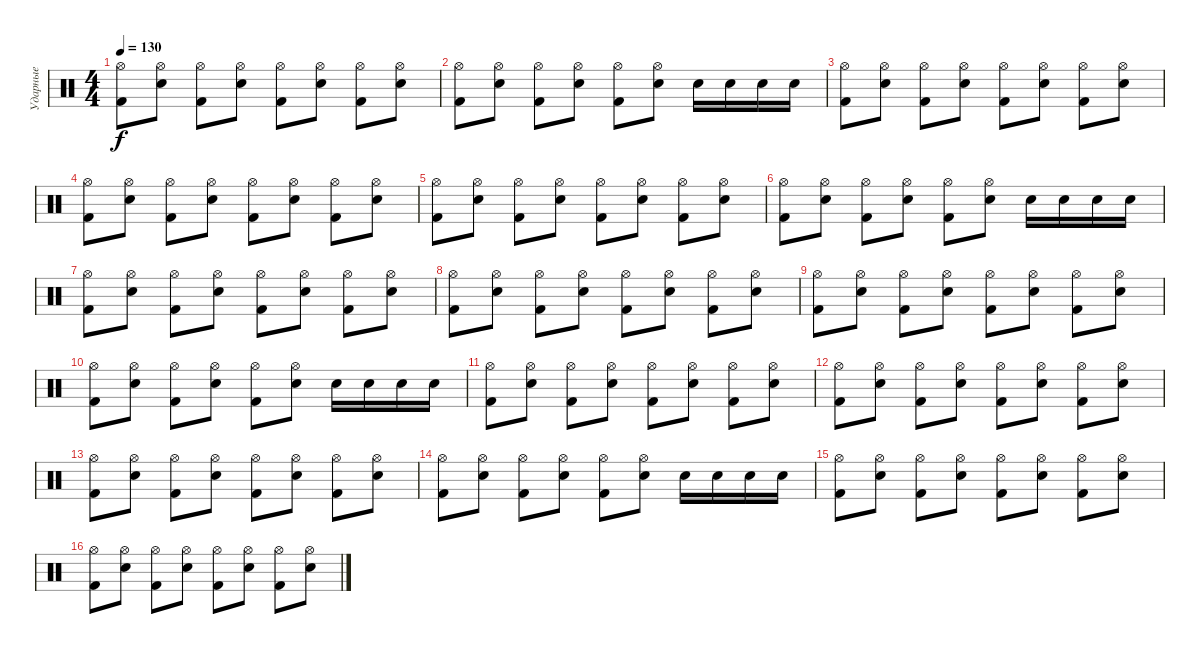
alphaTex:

\track ("Ударные" "Ударные") {instrument percussion}
\staff {score}
\articulation defaults
\ts (4 4)
\tempo 130
\clef neutral
\ks c
("Hi-Hat (open)" "Kick (hit) 2").8{dy f} ("Hi-Hat (open)" "Electric Snare (hit)").8 ("Hi-Hat (open)" "Kick (hit) 2").8 ("Hi-Hat (open)" "Electric Snare (hit)").8 ("Hi-Hat (open)" "Kick (hit) 2").8 ("Hi-Hat (open)" "Electric Snare (hit)").8 ("Hi-Hat (open)" "Kick (hit) 2").8 ("Hi-Hat (open)" "Electric Snare (hit)").8 |
("Hi-Hat (open)" "Kick (hit) 2").8 ("Hi-Hat (open)" "Electric Snare (hit)").8 ("Hi-Hat (open)" "Kick (hit) 2").8 ("Hi-Hat (open)" "Electric Snare (hit)").8 ("Hi-Hat (open)" "Kick (hit) 2").8 ("Hi-Hat (open)" "Electric Snare (hit)").8 "Electric Snare (hit)".16 "Electric Snare (hit)".16 "Electric Snare (hit)".16 "Electric Snare (hit)".16 |
("Hi-Hat (open)" "Kick (hit) 2").8 ("Hi-Hat (open)" "Electric Snare (hit)").8 ("Hi-Hat (open)" "Kick (hit) 2").8 ("Hi-Hat (open)" "Electric Snare (hit)").8 ("Hi-Hat (open)" "Kick (hit) 2").8 ("Hi-Hat (open)" "Electric Snare (hit)").8 ("Hi-Hat (open)" "Kick (hit) 2").8 ("Hi-Hat (open)" "Electric Snare (hit)").8 |
("Hi-Hat (open)" "Kick (hit) 2").8 ("Hi-Hat (open)" "Electric Snare (hit)").8 ("Hi-Hat (open)" "Kick (hit) 2").8 ("Hi-Hat (open)" "Electric Snare (hit)").8 ("Hi-Hat (open)" "Kick (hit) 2").8 ("Hi-Hat (open)" "Electric Snare (hit)").8 ("Hi-Hat (open)" "Kick (hit) 2").8 ("Hi-Hat (open)" "Electric Snare (hit)").8 |
("Hi-Hat (open)" "Kick (hit) 2").8 ("Hi-Hat (open)" "Electric Snare (hit)").8 ("Hi-Hat (open)" "Kick (hit) 2").8 ("Hi-Hat (open)" "Electric Snare (hit)").8 ("Hi-Hat (open)" "Kick (hit) 2").8 ("Hi-Hat (open)" "Electric Snare (hit)").8 ("Hi-Hat (open)" "Kick (hit) 2").8 ("Hi-Hat (open)" "Electric Snare (hit)").8 |
("Hi-Hat (open)" "Kick (hit) 2").8 ("Hi-Hat (open)" "Electric Snare (hit)").8 ("Hi-Hat (open)" "Kick (hit) 2").8 ("Hi-Hat (open)" "Electric Snare (hit)").8 ("Hi-Hat (open)" "Kick (hit) 2").8 ("Hi-Hat (open)" "Electric Snare (hit)").8 "Electric Snare (hit)".16 "Electric Snare (hit)".16 "Electric Snare (hit)".16 "Electric Snare (hit)".16 |
("Hi-Hat (open)" "Kick (hit) 2").8 ("Hi-Hat (open)" "Electric Snare (hit)").8 ("Hi-Hat (open)" "Kick (hit) 2").8 ("Hi-Hat (open)" "Electric Snare (hit)").8 ("Hi-Hat (open)" "Kick (hit) 2").8 ("Hi-Hat (open)" "Electric Snare (hit)").8 ("Hi-Hat (open)" "Kick (hit) 2").8 ("Hi-Hat (open)" "Electric Snare (hit)").8 |
("Hi-Hat (open)" "Kick (hit) 2").8 ("Hi-Hat (open)" "Electric Snare (hit)").8 ("Hi-Hat (open)" "Kick (hit) 2").8 ("Hi-Hat (open)" "Electric Snare (hit)").8 ("Hi-Hat (open)" "Kick (hit) 2").8 ("Hi-Hat (open)" "Electric Snare (hit)").8 ("Hi-Hat (open)" "Kick (hit) 2").8 ("Hi-Hat (open)" "Electric Snare (hit)").8 |
("Hi-Hat (open)" "Kick (hit) 2").8 ("Hi-Hat (open)" "Electric Snare (hit)").8 ("Hi-Hat (open)" "Kick (hit) 2").8 ("Hi-Hat (open)" "Electric Snare (hit)").8 ("Hi-Hat (open)" "Kick (hit) 2").8 ("Hi-Hat (open)" "Electric Snare (hit)").8 ("Hi-Hat (open)" "Kick (hit) 2").8 ("Hi-Hat (open)" "Electric Snare (hit)").8 |
("Hi-Hat (open)" "Kick (hit) 2").8 ("Hi-Hat (open)" "Electric Snare (hit)").8 ("Hi-Hat (open)" "Kick (hit) 2").8 ("Hi-Hat (open)" "Electric Snare (hit)").8 ("Hi-Hat (open)" "Kick (hit) 2").8 ("Hi-Hat (open)" "Electric Snare (hit)").8 "Electric Snare (hit)".16 "Electric Snare (hit)".16 "Electric Snare (hit)".16 "Electric Snare (hit)".16 |
("Hi-Hat (open)" "Kick (hit) 2").8 ("Hi-Hat (open)" "Electric Snare (hit)").8 ("Hi-Hat (open)" "Kick (hit) 2").8 ("Hi-Hat (open)" "Electric Snare (hit)").8 ("Hi-Hat (open)" "Kick (hit) 2").8 ("Hi-Hat (open)" "Electric Snare (hit)").8 ("Hi-Hat (open)" "Kick (hit) 2").8 ("Hi-Hat (open)" "Electric Snare (hit)").8 |
("Hi-Hat (open)" "Kick (hit) 2").8 ("Hi-Hat (open)" "Electric Snare (hit)").8 ("Hi-Hat (open)" "Kick (hit) 2").8 ("Hi-Hat (open)" "Electric Snare (hit)").8 ("Hi-Hat (open)" "Kick (hit) 2").8 ("Hi-Hat (open)" "Electric Snare (hit)").8 ("Hi-Hat (open)" "Kick (hit) 2").8 ("Hi-Hat (open)" "Electric Snare (hit)").8 |
("Hi-Hat (open)" "Kick (hit) 2").8 ("Hi-Hat (open)" "Electric Snare (hit)").8 ("Hi-Hat (open)" "Kick (hit) 2").8 ("Hi-Hat (open)" "Electric Snare (hit)").8 ("Hi-Hat (open)" "Kick (hit) 2").8 ("Hi-Hat (open)" "Electric Snare (hit)").8 ("Hi-Hat (open)" "Kick (hit) 2").8 ("Hi-Hat (open)" "Electric Snare (hit)").8 |
("Hi-Hat (open)" "Kick (hit) 2").8 ("Hi-Hat (open)" "Electric Snare (hit)").8 ("Hi-Hat (open)" "Kick (hit) 2").8 ("Hi-Hat (open)" "Electric Snare (hit)").8 ("Hi-Hat (open)" "Kick (hit) 2").8 ("Hi-Hat (open)" "Electric Snare (hit)").8 "Electric Snare (hit)".16 "Electric Snare (hit)".16 "Electric Snare (hit)".16 "Electric Snare (hit)".16 |
("Hi-Hat (open)" "Kick (hit) 2").8 ("Hi-Hat (open)" "Electric Snare (hit)").8 ("Hi-Hat (open)" "Kick (hit) 2").8 ("Hi-Hat (open)" "Electric Snare (hit)").8 ("Hi-Hat (open)" "Kick (hit) 2").8 ("Hi-Hat (open)" "Electric Snare (hit)").8 ("Hi-Hat (open)" "Kick (hit) 2").8 ("Hi-Hat (open)" "Electric Snare (hit)").8 |
("Hi-Hat (open)" "Kick (hit) 2").8 ("Hi-Hat (open)" "Electric Snare (hit)").8 ("Hi-Hat (open)" "Kick (hit) 2").8 ("Hi-Hat (open)" "Electric Snare (hit)").8 ("Hi-Hat (open)" "Kick (hit) 2").8 ("Hi-Hat (open)" "Electric Snare (hit)").8 ("Hi-Hat (open)" "Kick (hit) 2").8 ("Hi-Hat (open)" "Electric Snare (hit)").8
